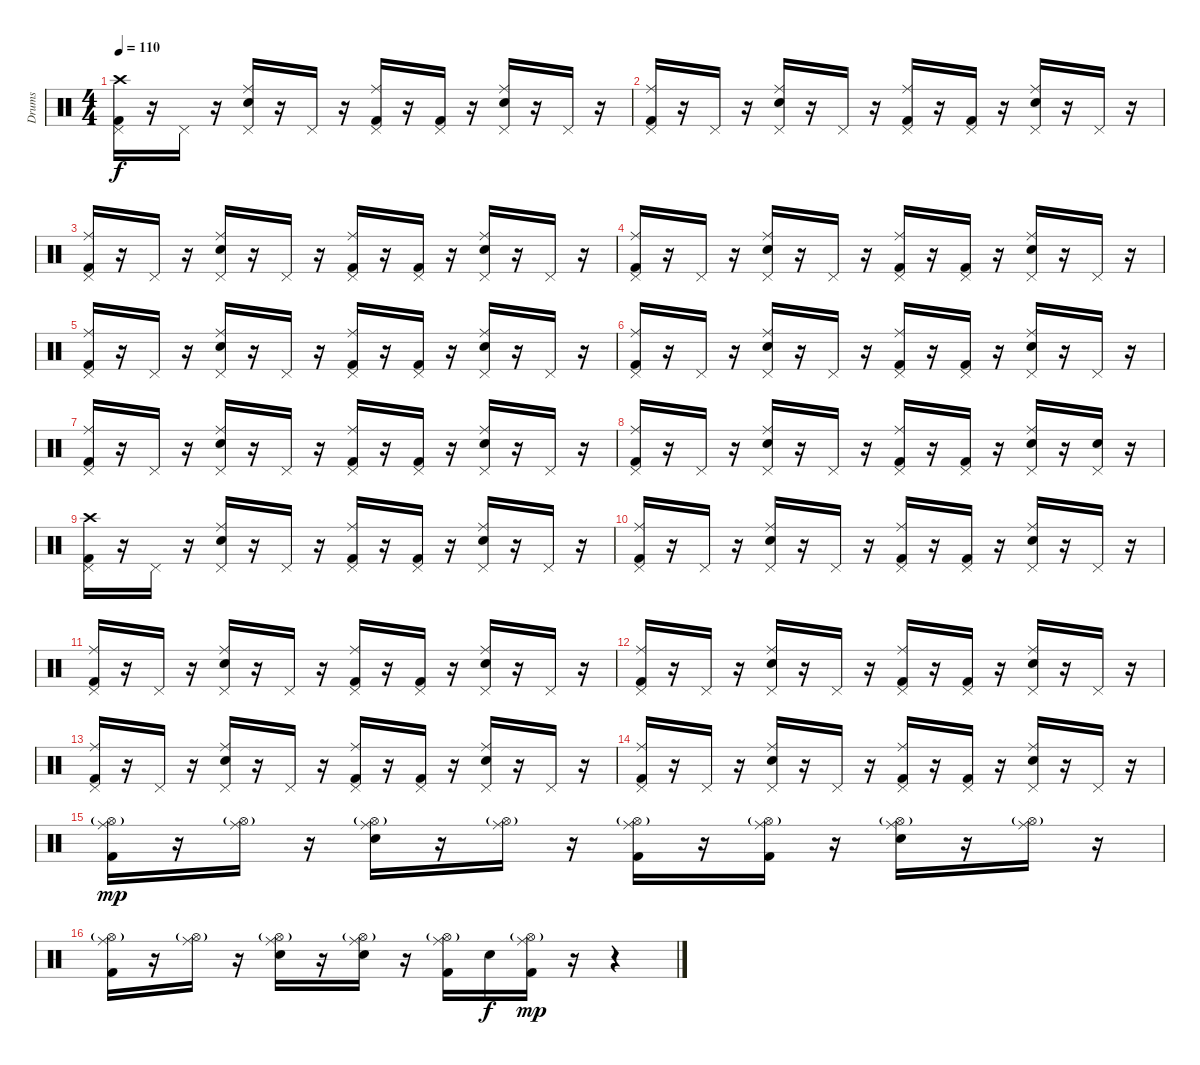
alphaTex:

\track ("Drums" "Drums") {instrument percussion}
\staff {score}
\articulation defaults
\ts (4 4)
\tempo 110
\clef neutral
\ks c
("Crash high (hit)" "Kick (hit) 2" "Pedal Hi-Hat (hit)").16{dy f} r.16 "Pedal Hi-Hat (hit)".16 r.16 ("Ride (middle)" "Electric Snare (hit)" "Pedal Hi-Hat (hit)").16 r.16 "Pedal Hi-Hat (hit)".16 r.16 ("Ride (middle)" "Kick (hit) 2" "Pedal Hi-Hat (hit)").16 r.16 ("Kick (hit) 2" "Pedal Hi-Hat (hit)").16 r.16 ("Ride (middle)" "Electric Snare (hit)" "Pedal Hi-Hat (hit)").16 r.16 "Pedal Hi-Hat (hit)".16 r.16 |
("Ride (middle)" "Kick (hit) 2" "Pedal Hi-Hat (hit)").16 r.16 "Pedal Hi-Hat (hit)".16 r.16 ("Ride (middle)" "Electric Snare (hit)" "Pedal Hi-Hat (hit)").16 r.16 "Pedal Hi-Hat (hit)".16 r.16 ("Ride (middle)" "Kick (hit) 2" "Pedal Hi-Hat (hit)").16 r.16 ("Kick (hit) 2" "Pedal Hi-Hat (hit)").16 r.16 ("Ride (middle)" "Electric Snare (hit)" "Pedal Hi-Hat (hit)").16 r.16 "Pedal Hi-Hat (hit)".16 r.16 |
("Ride (middle)" "Kick (hit) 2" "Pedal Hi-Hat (hit)").16 r.16 "Pedal Hi-Hat (hit)".16 r.16 ("Ride (middle)" "Electric Snare (hit)" "Pedal Hi-Hat (hit)").16 r.16 "Pedal Hi-Hat (hit)".16 r.16 ("Ride (middle)" "Kick (hit) 2" "Pedal Hi-Hat (hit)").16 r.16 ("Kick (hit) 2" "Pedal Hi-Hat (hit)").16 r.16 ("Ride (middle)" "Electric Snare (hit)" "Pedal Hi-Hat (hit)").16 r.16 "Pedal Hi-Hat (hit)".16 r.16 |
("Ride (middle)" "Kick (hit) 2" "Pedal Hi-Hat (hit)").16 r.16 "Pedal Hi-Hat (hit)".16 r.16 ("Ride (middle)" "Electric Snare (hit)" "Pedal Hi-Hat (hit)").16 r.16 "Pedal Hi-Hat (hit)".16 r.16 ("Ride (middle)" "Kick (hit) 2" "Pedal Hi-Hat (hit)").16 r.16 ("Kick (hit) 2" "Pedal Hi-Hat (hit)").16 r.16 ("Ride (middle)" "Electric Snare (hit)" "Pedal Hi-Hat (hit)").16 r.16 "Pedal Hi-Hat (hit)".16 r.16 |
("Ride (middle)" "Kick (hit) 2" "Pedal Hi-Hat (hit)").16 r.16 "Pedal Hi-Hat (hit)".16 r.16 ("Ride (middle)" "Electric Snare (hit)" "Pedal Hi-Hat (hit)").16 r.16 "Pedal Hi-Hat (hit)".16 r.16 ("Ride (middle)" "Kick (hit) 2" "Pedal Hi-Hat (hit)").16 r.16 ("Kick (hit) 2" "Pedal Hi-Hat (hit)").16 r.16 ("Ride (middle)" "Electric Snare (hit)" "Pedal Hi-Hat (hit)").16 r.16 "Pedal Hi-Hat (hit)".16 r.16 |
("Ride (middle)" "Kick (hit) 2" "Pedal Hi-Hat (hit)").16 r.16 "Pedal Hi-Hat (hit)".16 r.16 ("Ride (middle)" "Electric Snare (hit)" "Pedal Hi-Hat (hit)").16 r.16 "Pedal Hi-Hat (hit)".16 r.16 ("Ride (middle)" "Kick (hit) 2" "Pedal Hi-Hat (hit)").16 r.16 ("Kick (hit) 2" "Pedal Hi-Hat (hit)").16 r.16 ("Ride (middle)" "Electric Snare (hit)" "Pedal Hi-Hat (hit)").16 r.16 "Pedal Hi-Hat (hit)".16 r.16 |
("Ride (middle)" "Kick (hit) 2" "Pedal Hi-Hat (hit)").16 r.16 "Pedal Hi-Hat (hit)".16 r.16 ("Ride (middle)" "Electric Snare (hit)" "Pedal Hi-Hat (hit)").16 r.16 "Pedal Hi-Hat (hit)".16 r.16 ("Ride (middle)" "Kick (hit) 2" "Pedal Hi-Hat (hit)").16 r.16 ("Kick (hit) 2" "Pedal Hi-Hat (hit)").16 r.16 ("Ride (middle)" "Electric Snare (hit)" "Pedal Hi-Hat (hit)").16 r.16 "Pedal Hi-Hat (hit)".16 r.16 |
("Ride (middle)" "Kick (hit) 2" "Pedal Hi-Hat (hit)").16 r.16 "Pedal Hi-Hat (hit)".16 r.16 ("Ride (middle)" "Electric Snare (hit)" "Pedal Hi-Hat (hit)").16 r.16 "Pedal Hi-Hat (hit)".16 r.16 ("Ride (middle)" "Kick (hit) 2" "Pedal Hi-Hat (hit)").16 r.16 ("Kick (hit) 2" "Pedal Hi-Hat (hit)").16 r.16 ("Ride (middle)" "Electric Snare (hit)" "Pedal Hi-Hat (hit)").16 r.16 ("Electric Snare (hit)" "Pedal Hi-Hat (hit)").16 r.16 |
("Crash high (hit)" "Kick (hit) 2" "Pedal Hi-Hat (hit)").16 r.16 "Pedal Hi-Hat (hit)".16 r.16 ("Ride (middle)" "Electric Snare (hit)" "Pedal Hi-Hat (hit)").16 r.16 "Pedal Hi-Hat (hit)".16 r.16 ("Ride (middle)" "Kick (hit) 2" "Pedal Hi-Hat (hit)").16 r.16 ("Kick (hit) 2" "Pedal Hi-Hat (hit)").16 r.16 ("Ride (middle)" "Electric Snare (hit)" "Pedal Hi-Hat (hit)").16 r.16 "Pedal Hi-Hat (hit)".16 r.16 |
("Ride (middle)" "Kick (hit) 2" "Pedal Hi-Hat (hit)").16 r.16 "Pedal Hi-Hat (hit)".16 r.16 ("Ride (middle)" "Electric Snare (hit)" "Pedal Hi-Hat (hit)").16 r.16 "Pedal Hi-Hat (hit)".16 r.16 ("Ride (middle)" "Kick (hit) 2" "Pedal Hi-Hat (hit)").16 r.16 ("Kick (hit) 2" "Pedal Hi-Hat (hit)").16 r.16 ("Ride (middle)" "Electric Snare (hit)" "Pedal Hi-Hat (hit)").16 r.16 "Pedal Hi-Hat (hit)".16 r.16 |
("Ride (middle)" "Kick (hit) 2" "Pedal Hi-Hat (hit)").16 r.16 "Pedal Hi-Hat (hit)".16 r.16 ("Ride (middle)" "Electric Snare (hit)" "Pedal Hi-Hat (hit)").16 r.16 "Pedal Hi-Hat (hit)".16 r.16 ("Ride (middle)" "Kick (hit) 2" "Pedal Hi-Hat (hit)").16 r.16 ("Kick (hit) 2" "Pedal Hi-Hat (hit)").16 r.16 ("Ride (middle)" "Electric Snare (hit)" "Pedal Hi-Hat (hit)").16 r.16 "Pedal Hi-Hat (hit)".16 r.16 |
("Ride (middle)" "Kick (hit) 2" "Pedal Hi-Hat (hit)").16 r.16 "Pedal Hi-Hat (hit)".16 r.16 ("Ride (middle)" "Electric Snare (hit)" "Pedal Hi-Hat (hit)").16 r.16 "Pedal Hi-Hat (hit)".16 r.16 ("Ride (middle)" "Kick (hit) 2" "Pedal Hi-Hat (hit)").16 r.16 ("Kick (hit) 2" "Pedal Hi-Hat (hit)").16 r.16 ("Ride (middle)" "Electric Snare (hit)" "Pedal Hi-Hat (hit)").16 r.16 "Pedal Hi-Hat (hit)".16 r.16 |
("Ride (middle)" "Kick (hit) 2" "Pedal Hi-Hat (hit)").16 r.16 "Pedal Hi-Hat (hit)".16 r.16 ("Ride (middle)" "Electric Snare (hit)" "Pedal Hi-Hat (hit)").16 r.16 "Pedal Hi-Hat (hit)".16 r.16 ("Ride (middle)" "Kick (hit) 2" "Pedal Hi-Hat (hit)").16 r.16 ("Kick (hit) 2" "Pedal Hi-Hat (hit)").16 r.16 ("Ride (middle)" "Electric Snare (hit)" "Pedal Hi-Hat (hit)").16 r.16 "Pedal Hi-Hat (hit)".16 r.16 |
("Ride (middle)" "Kick (hit) 2" "Pedal Hi-Hat (hit)").16 r.16 "Pedal Hi-Hat (hit)".16 r.16 ("Ride (middle)" "Electric Snare (hit)" "Pedal Hi-Hat (hit)").16 r.16 "Pedal Hi-Hat (hit)".16 r.16 ("Ride (middle)" "Kick (hit) 2" "Pedal Hi-Hat (hit)").16 r.16 ("Kick (hit) 2" "Pedal Hi-Hat (hit)").16 r.16 ("Ride (middle)" "Electric Snare (hit)" "Pedal Hi-Hat (hit)").16 r.16 "Pedal Hi-Hat (hit)".16 r.16 |
("Ride (middle)" "Kick (hit) 2" "Hi-Hat (open)"{g}).16{dy mp} r.16 ("Ride (middle)" "Hi-Hat (open)"{g}).16 r.16 ("Ride (middle)" "Electric Snare (hit)" "Hi-Hat (open)"{g}).16 r.16 ("Ride (middle)" "Hi-Hat (open)"{g}).16 r.16 ("Ride (middle)" "Kick (hit) 2" "Hi-Hat (open)"{g}).16 r.16 ("Ride (middle)" "Kick (hit) 2" "Hi-Hat (open)"{g}).16 r.16 ("Ride (middle)" "Electric Snare (hit)" "Hi-Hat (open)"{g}).16 r.16 ("Ride (middle)" "Hi-Hat (open)"{g}).16 r.16 |
("Ride (middle)" "Kick (hit) 2" "Hi-Hat (open)"{g}).16 r.16 ("Ride (middle)" "Hi-Hat (open)"{g}).16 r.16 ("Ride (middle)" "Electric Snare (hit)" "Hi-Hat (open)"{g}).16 r.16 ("Ride (middle)" "Electric Snare (hit)" "Hi-Hat (open)"{g}).16 r.16 ("Ride (middle)" "Kick (hit) 2" "Hi-Hat (open)"{g}).16 "Electric Snare (hit)".16{dy f} ("Ride (middle)" "Kick (hit) 2" "Hi-Hat (open)"{g}).16{dy mp} r.16 r.4
